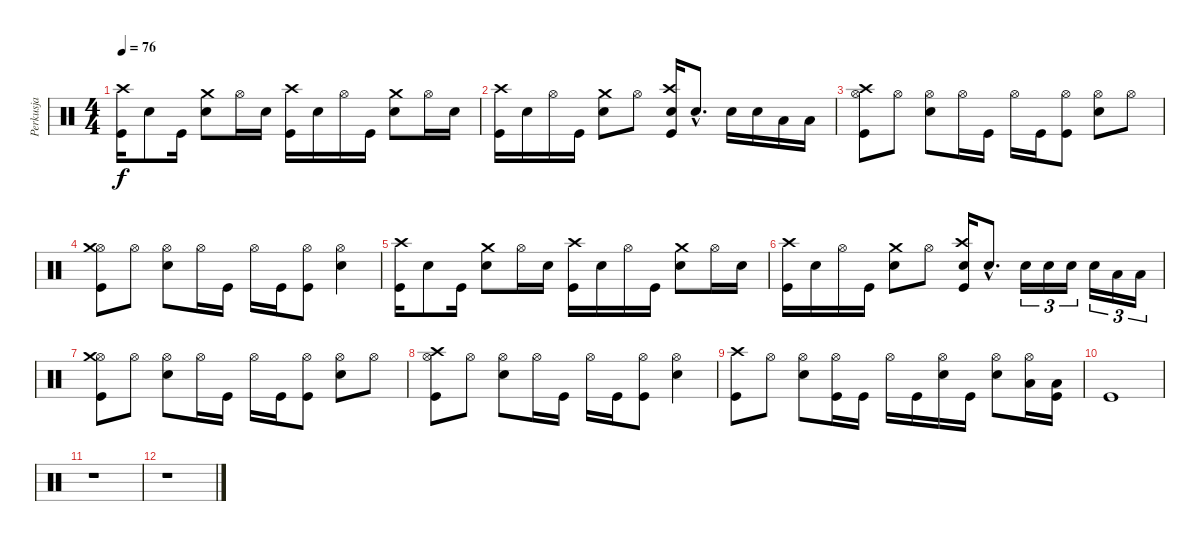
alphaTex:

\track ("Perkusja" "Perkusja") {instrument percussion}
\staff {score}
\articulation defaults
\ts (4 4)
\tempo 76
\clef neutral
\ks c
("Kick (hit)" "Crash high (hit)").16{dy f} "Snare (hit) 2".8 "Kick (hit)".16 ("Snare (hit) 2" "Crash medium (hit)").8 "Hi-Hat (open)".16 "Snare (hit) 2".16 ("Kick (hit)" "Crash high (hit)").16 "Snare (hit) 2".16 "Hi-Hat (open)".16 "Kick (hit)".16 ("Snare (hit) 2" "Crash medium (hit)").8 "Hi-Hat (open)".16 "Snare (hit) 2".16 |
("Kick (hit)" "Crash high (hit)").16 "Snare (hit) 2".16 "Hi-Hat (open)".16 "Kick (hit)".16 ("Snare (hit) 2" "Crash medium (hit)").8 "Hi-Hat (open)".8 ("Kick (hit)" "Snare (hit) 2" "Crash high (hit)").16 "Snare (hit) 2"{hac}.8{d} "Snare (hit) 2".16 "Snare (hit) 2".16 "Low Tom (hit)".16 "Low Tom (hit)".16 |
("Kick (hit)" "Hi-Hat (open)" "Crash high (hit)").8 "Hi-Hat (open)".8 ("Snare (hit) 2" "Hi-Hat (open)").8 "Hi-Hat (open)".16 "Kick (hit)".16 "Hi-Hat (open)".16 "Kick (hit)".16 ("Kick (hit)" "Hi-Hat (open)").8 ("Snare (hit) 2" "Hi-Hat (open)").8 "Hi-Hat (open)".8 |
("Kick (hit)" "Hi-Hat (open)" "Crash medium (hit)").8 "Hi-Hat (open)".8 ("Snare (hit) 2" "Hi-Hat (open)").8 "Hi-Hat (open)".16 "Kick (hit)".16 "Hi-Hat (open)".16 "Kick (hit)".16 ("Kick (hit)" "Hi-Hat (open)").8 ("Snare (hit) 2" "Hi-Hat (open)").4 |
("Kick (hit)" "Crash high (hit)").16 "Snare (hit) 2".8 "Kick (hit)".16 ("Snare (hit) 2" "Crash medium (hit)").8 "Hi-Hat (open)".16 "Snare (hit) 2".16 ("Kick (hit)" "Crash high (hit)").16 "Snare (hit) 2".16 "Hi-Hat (open)".16 "Kick (hit)".16 ("Snare (hit) 2" "Crash medium (hit)").8 "Hi-Hat (open)".16 "Snare (hit) 2".16 |
("Kick (hit)" "Crash high (hit)").16 "Snare (hit) 2".16 "Hi-Hat (open)".16 "Kick (hit)".16 ("Snare (hit) 2" "Crash medium (hit)").8 "Hi-Hat (open)".8 ("Kick (hit)" "Snare (hit) 2" "Crash high (hit)").16 "Snare (hit) 2"{hac}.8{d} "Snare (hit) 2".16{tu (3 2)} "Snare (hit) 2".16{tu (3 2)} "Snare (hit) 2".16{tu (3 2)} "Snare (hit) 2".16{tu (3 2)} "Low Tom (hit)".16{tu (3 2)} "Low Tom (hit)".16{tu (3 2)} |
("Kick (hit)" "Hi-Hat (open)" "Crash medium (hit)").8 "Hi-Hat (open)".8 ("Snare (hit) 2" "Hi-Hat (open)").8 "Hi-Hat (open)".16 "Kick (hit)".16 "Hi-Hat (open)".16 "Kick (hit)".16 ("Kick (hit)" "Hi-Hat (open)").8 ("Snare (hit) 2" "Hi-Hat (open)").8 "Hi-Hat (open)".8 |
("Kick (hit)" "Hi-Hat (open)" "Crash high (hit)").8 "Hi-Hat (open)".8 ("Snare (hit) 2" "Hi-Hat (open)").8 "Hi-Hat (open)".16 "Kick (hit)".16 "Hi-Hat (open)".16 "Kick (hit)".16 ("Kick (hit)" "Hi-Hat (open)").8 ("Snare (hit) 2" "Hi-Hat (open)").4 |
("Kick (hit)" "Crash high (hit)").8 "Hi-Hat (open)".8 ("Snare (hit) 2" "Hi-Hat (open)").8 ("Kick (hit)" "Hi-Hat (open)").16 "Kick (hit)".16 "Hi-Hat (open)".16 "Kick (hit)".16 ("Snare (hit) 2" "Hi-Hat (open)").16 "Kick (hit)".16 ("Snare (hit) 2" "Hi-Hat (open)").8 ("Low Tom (hit)" "Hi-Hat (open)").16 ("Kick (hit)" "Low Tom (hit)").16 |
"Kick (hit)".1 |
r.1 |
r.1
